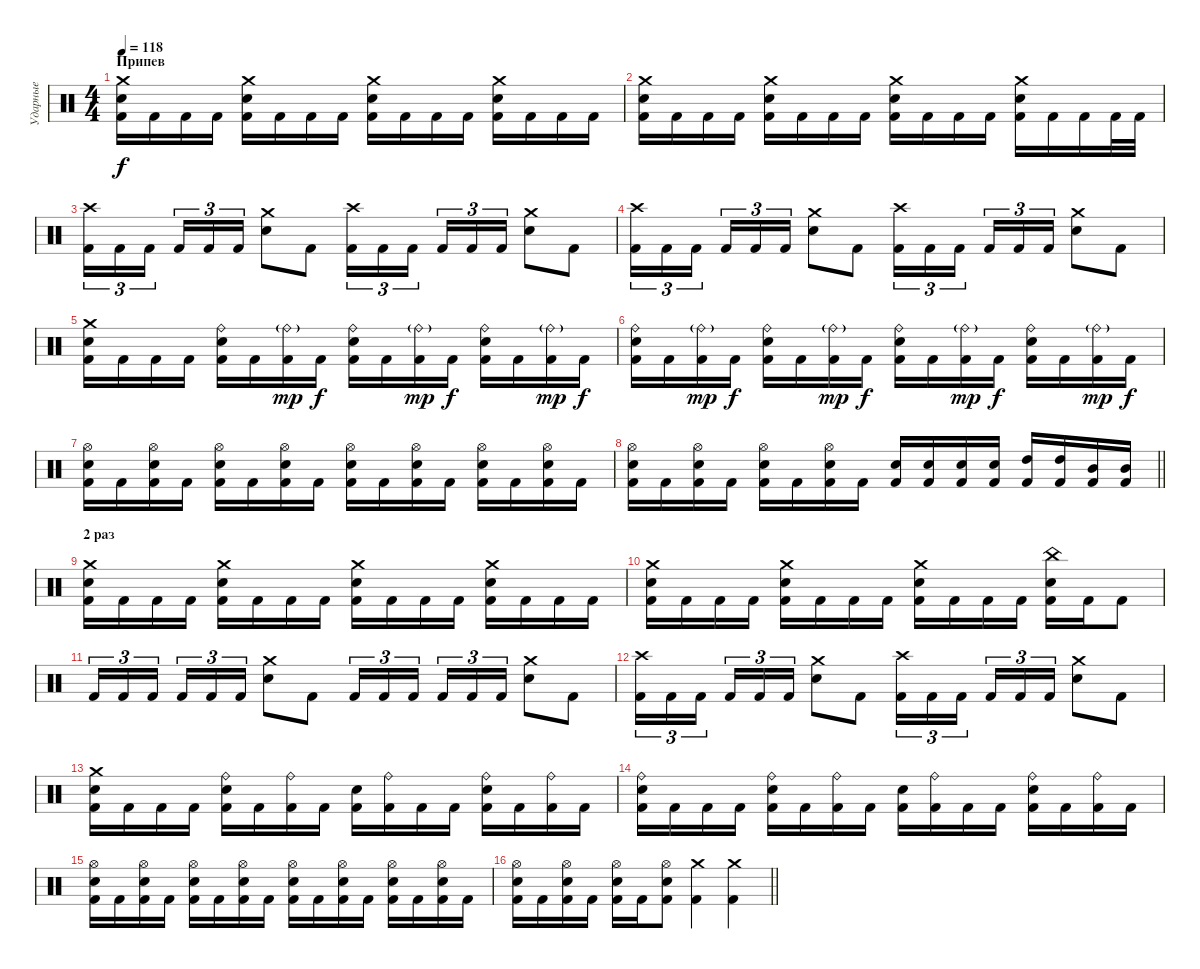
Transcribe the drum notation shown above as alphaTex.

\track ("Ударные" "Ударные") {instrument percussion}
\staff {score}
\articulation defaults
\ts (4 4)
\section ("" "Припев")
\tempo 118
\clef neutral
\ks c
("Crash medium (hit)" "Electric Snare (hit)" "Kick (hit) 2").16{dy f} "Kick (hit) 2".16 "Kick (hit) 2".16 "Kick (hit) 2".16 ("Crash medium (hit)" "Electric Snare (hit)" "Kick (hit) 2").16 "Kick (hit) 2".16 "Kick (hit) 2".16 "Kick (hit) 2".16 ("Crash medium (hit)" "Electric Snare (hit)" "Kick (hit) 2").16 "Kick (hit) 2".16 "Kick (hit) 2".16 "Kick (hit) 2".16 ("Crash medium (hit)" "Electric Snare (hit)" "Kick (hit) 2").16 "Kick (hit) 2".16 "Kick (hit) 2".16 "Kick (hit) 2".16 |
("Crash medium (hit)" "Electric Snare (hit)" "Kick (hit) 2").16 "Kick (hit) 2".16 "Kick (hit) 2".16 "Kick (hit) 2".16 ("Crash medium (hit)" "Electric Snare (hit)" "Kick (hit) 2").16 "Kick (hit) 2".16 "Kick (hit) 2".16 "Kick (hit) 2".16 ("Crash medium (hit)" "Electric Snare (hit)" "Kick (hit) 2").16 "Kick (hit) 2".16 "Kick (hit) 2".16 "Kick (hit) 2".16 ("Crash medium (hit)" "Electric Snare (hit)" "Kick (hit) 2").16 "Kick (hit) 2".16 "Kick (hit) 2".16 "Kick (hit) 2".32 "Kick (hit) 2".32 |
("Crash high (hit)" "Kick (hit) 2").16{tu (3 2)} "Kick (hit) 2".16{tu (3 2)} "Kick (hit) 2".16{tu (3 2)} "Kick (hit) 2".16{tu (3 2)} "Kick (hit) 2".16{tu (3 2)} "Kick (hit) 2".16{tu (3 2)} ("Crash medium (hit)" "Electric Snare (hit)").8 "Kick (hit) 2".8 ("Crash high (hit)" "Kick (hit) 2").16{tu (3 2)} "Kick (hit) 2".16{tu (3 2)} "Kick (hit) 2".16{tu (3 2)} "Kick (hit) 2".16{tu (3 2)} "Kick (hit) 2".16{tu (3 2)} "Kick (hit) 2".16{tu (3 2)} ("Crash medium (hit)" "Electric Snare (hit)").8 "Kick (hit) 2".8 |
("Crash high (hit)" "Kick (hit) 2").16{tu (3 2)} "Kick (hit) 2".16{tu (3 2)} "Kick (hit) 2".16{tu (3 2)} "Kick (hit) 2".16{tu (3 2)} "Kick (hit) 2".16{tu (3 2)} "Kick (hit) 2".16{tu (3 2)} ("Crash medium (hit)" "Electric Snare (hit)").8 "Kick (hit) 2".8 ("Crash high (hit)" "Kick (hit) 2").16{tu (3 2)} "Kick (hit) 2".16{tu (3 2)} "Kick (hit) 2".16{tu (3 2)} "Kick (hit) 2".16{tu (3 2)} "Kick (hit) 2".16{tu (3 2)} "Kick (hit) 2".16{tu (3 2)} ("Crash medium (hit)" "Electric Snare (hit)").8 "Kick (hit) 2".8 |
("Crash medium (hit)" "Electric Snare (hit)" "Kick (hit) 2").16 "Kick (hit) 2".16 "Kick (hit) 2".16 "Kick (hit) 2".16 ("Ride (bell)" "Electric Snare (hit)" "Kick (hit) 2").16 "Kick (hit) 2".16 ("Ride (bell)"{g} "Kick (hit) 2").16{dy mp} "Kick (hit) 2".16{dy f} ("Ride (bell)" "Electric Snare (hit)" "Kick (hit) 2").16 "Kick (hit) 2".16 ("Ride (bell)"{g} "Kick (hit) 2").16{dy mp} "Kick (hit) 2".16{dy f} ("Ride (bell)" "Electric Snare (hit)" "Kick (hit) 2").16 "Kick (hit) 2".16 ("Ride (bell)"{g} "Kick (hit) 2").16{dy mp} "Kick (hit) 2".16{dy f} |
("Ride (bell)" "Electric Snare (hit)" "Kick (hit) 2").16 "Kick (hit) 2".16 ("Ride (bell)"{g} "Kick (hit) 2").16{dy mp} "Kick (hit) 2".16{dy f} ("Ride (bell)" "Electric Snare (hit)" "Kick (hit) 2").16 "Kick (hit) 2".16 ("Ride (bell)"{g} "Kick (hit) 2").16{dy mp} "Kick (hit) 2".16{dy f} ("Ride (bell)" "Electric Snare (hit)" "Kick (hit) 2").16 "Kick (hit) 2".16 ("Ride (bell)"{g} "Kick (hit) 2").16{dy mp} "Kick (hit) 2".16{dy f} ("Ride (bell)" "Electric Snare (hit)" "Kick (hit) 2").16 "Kick (hit) 2".16 ("Ride (bell)"{g} "Kick (hit) 2").16{dy mp} "Kick (hit) 2".16{dy f} |
("Hi-Hat (open)" "Electric Snare (hit)" "Kick (hit) 2").16 "Kick (hit) 2".16 ("Hi-Hat (open)" "Electric Snare (hit)" "Kick (hit) 2").16 "Kick (hit) 2".16 ("Hi-Hat (open)" "Electric Snare (hit)" "Kick (hit) 2").16 "Kick (hit) 2".16 ("Hi-Hat (open)" "Electric Snare (hit)" "Kick (hit) 2").16 "Kick (hit) 2".16 ("Hi-Hat (open)" "Electric Snare (hit)" "Kick (hit) 2").16 "Kick (hit) 2".16 ("Hi-Hat (open)" "Electric Snare (hit)" "Kick (hit) 2").16 "Kick (hit) 2".16 ("Hi-Hat (open)" "Electric Snare (hit)" "Kick (hit) 2").16 "Kick (hit) 2".16 ("Hi-Hat (open)" "Electric Snare (hit)" "Kick (hit) 2").16 "Kick (hit) 2".16 |
\barLineRight lightlight
("Hi-Hat (open)" "Electric Snare (hit)" "Kick (hit) 2").16 "Kick (hit) 2".16 ("Hi-Hat (open)" "Electric Snare (hit)" "Kick (hit) 2").16 "Kick (hit) 2".16 ("Hi-Hat (open)" "Electric Snare (hit)" "Kick (hit) 2").16 "Kick (hit) 2".16 ("Hi-Hat (open)" "Electric Snare (hit)" "Kick (hit) 2").16 "Kick (hit) 2".16 ("Electric Snare (hit)" "Kick (hit) 2").16 ("Electric Snare (hit)" "Kick (hit) 2").16 ("Electric Snare (hit)" "Kick (hit) 2").16 ("Electric Snare (hit)" "Kick (hit) 2").16 ("High Tom (hit)" "Kick (hit) 2").16 ("High Tom (hit)" "Kick (hit) 2").16 ("Mid Tom (hit)" "Kick (hit) 2").16 ("Mid Tom (hit)" "Kick (hit) 2").16 |
\section ("" "2 раз")
("Crash medium (hit)" "Electric Snare (hit)" "Kick (hit) 2").16 "Kick (hit) 2".16 "Kick (hit) 2".16 "Kick (hit) 2".16 ("Crash medium (hit)" "Electric Snare (hit)" "Kick (hit) 2").16 "Kick (hit) 2".16 "Kick (hit) 2".16 "Kick (hit) 2".16 ("Crash medium (hit)" "Electric Snare (hit)" "Kick (hit) 2").16 "Kick (hit) 2".16 "Kick (hit) 2".16 "Kick (hit) 2".16 ("Crash medium (hit)" "Electric Snare (hit)" "Kick (hit) 2").16 "Kick (hit) 2".16 "Kick (hit) 2".16 "Kick (hit) 2".16 |
("Crash medium (hit)" "Electric Snare (hit)" "Kick (hit) 2").16 "Kick (hit) 2".16 "Kick (hit) 2".16 "Kick (hit) 2".16 ("Crash medium (hit)" "Electric Snare (hit)" "Kick (hit) 2").16 "Kick (hit) 2".16 "Kick (hit) 2".16 "Kick (hit) 2".16 ("Crash medium (hit)" "Electric Snare (hit)" "Kick (hit) 2").16 "Kick (hit) 2".16 "Kick (hit) 2".16 "Kick (hit) 2".16 ("China (hit)" "Electric Snare (hit)" "Kick (hit) 2").16 "Kick (hit) 2".16 "Kick (hit) 2".8 |
"Kick (hit) 2".16{tu (3 2)} "Kick (hit) 2".16{tu (3 2)} "Kick (hit) 2".16{tu (3 2)} "Kick (hit) 2".16{tu (3 2)} "Kick (hit) 2".16{tu (3 2)} "Kick (hit) 2".16{tu (3 2)} ("Crash medium (hit)" "Electric Snare (hit)").8 "Kick (hit) 2".8 "Kick (hit) 2".16{tu (3 2)} "Kick (hit) 2".16{tu (3 2)} "Kick (hit) 2".16{tu (3 2)} "Kick (hit) 2".16{tu (3 2)} "Kick (hit) 2".16{tu (3 2)} "Kick (hit) 2".16{tu (3 2)} ("Crash medium (hit)" "Electric Snare (hit)").8 "Kick (hit) 2".8 |
("Crash high (hit)" "Kick (hit) 2").16{tu (3 2)} "Kick (hit) 2".16{tu (3 2)} "Kick (hit) 2".16{tu (3 2)} "Kick (hit) 2".16{tu (3 2)} "Kick (hit) 2".16{tu (3 2)} "Kick (hit) 2".16{tu (3 2)} ("Crash medium (hit)" "Electric Snare (hit)").8 "Kick (hit) 2".8 ("Crash high (hit)" "Kick (hit) 2").16{tu (3 2)} "Kick (hit) 2".16{tu (3 2)} "Kick (hit) 2".16{tu (3 2)} "Kick (hit) 2".16{tu (3 2)} "Kick (hit) 2".16{tu (3 2)} "Kick (hit) 2".16{tu (3 2)} ("Crash medium (hit)" "Electric Snare (hit)").8 "Kick (hit) 2".8 |
("Crash medium (hit)" "Electric Snare (hit)" "Kick (hit) 2").16 "Kick (hit) 2".16 "Kick (hit) 2".16 "Kick (hit) 2".16 ("Ride (bell)" "Electric Snare (hit)" "Kick (hit) 2").16 "Kick (hit) 2".16 ("Ride (bell)" "Kick (hit) 2").16 "Kick (hit) 2".16 ("Electric Snare (hit)" "Kick (hit) 2").16 ("Ride (bell)" "Kick (hit) 2").16 "Kick (hit) 2".16 "Kick (hit) 2".16 ("Ride (bell)" "Electric Snare (hit)" "Kick (hit) 2").16 "Kick (hit) 2".16 ("Ride (bell)" "Kick (hit) 2").16 "Kick (hit) 2".16 |
("Ride (bell)" "Electric Snare (hit)" "Kick (hit) 2").16 "Kick (hit) 2".16 "Kick (hit) 2".16 "Kick (hit) 2".16 ("Ride (bell)" "Electric Snare (hit)" "Kick (hit) 2").16 "Kick (hit) 2".16 ("Ride (bell)" "Kick (hit) 2").16 "Kick (hit) 2".16 ("Electric Snare (hit)" "Kick (hit) 2").16 ("Ride (bell)" "Kick (hit) 2").16 "Kick (hit) 2".16 "Kick (hit) 2".16 ("Ride (bell)" "Electric Snare (hit)" "Kick (hit) 2").16 "Kick (hit) 2".16 ("Ride (bell)" "Kick (hit) 2").16 "Kick (hit) 2".16 |
("Hi-Hat (open)" "Electric Snare (hit)" "Kick (hit) 2").16 "Kick (hit) 2".16 ("Hi-Hat (open)" "Electric Snare (hit)" "Kick (hit) 2").16 "Kick (hit) 2".16 ("Hi-Hat (open)" "Electric Snare (hit)" "Kick (hit) 2").16 "Kick (hit) 2".16 ("Hi-Hat (open)" "Electric Snare (hit)" "Kick (hit) 2").16 "Kick (hit) 2".16 ("Hi-Hat (open)" "Electric Snare (hit)" "Kick (hit) 2").16 "Kick (hit) 2".16 ("Hi-Hat (open)" "Electric Snare (hit)" "Kick (hit) 2").16 "Kick (hit) 2".16 ("Hi-Hat (open)" "Electric Snare (hit)" "Kick (hit) 2").16 "Kick (hit) 2".16 ("Hi-Hat (open)" "Electric Snare (hit)" "Kick (hit) 2").16 "Kick (hit) 2".16 |
\barLineRight lightlight
("Hi-Hat (open)" "Electric Snare (hit)" "Kick (hit) 2").16 "Kick (hit) 2".16 ("Hi-Hat (open)" "Electric Snare (hit)" "Kick (hit) 2").16 "Kick (hit) 2".16 ("Hi-Hat (open)" "Electric Snare (hit)" "Kick (hit) 2").16 "Kick (hit) 2".16 ("Hi-Hat (open)" "Electric Snare (hit)" "Kick (hit) 2").8 ("Crash medium (hit)" "Kick (hit) 2").4 ("Crash medium (hit)" "Kick (hit) 2").4
